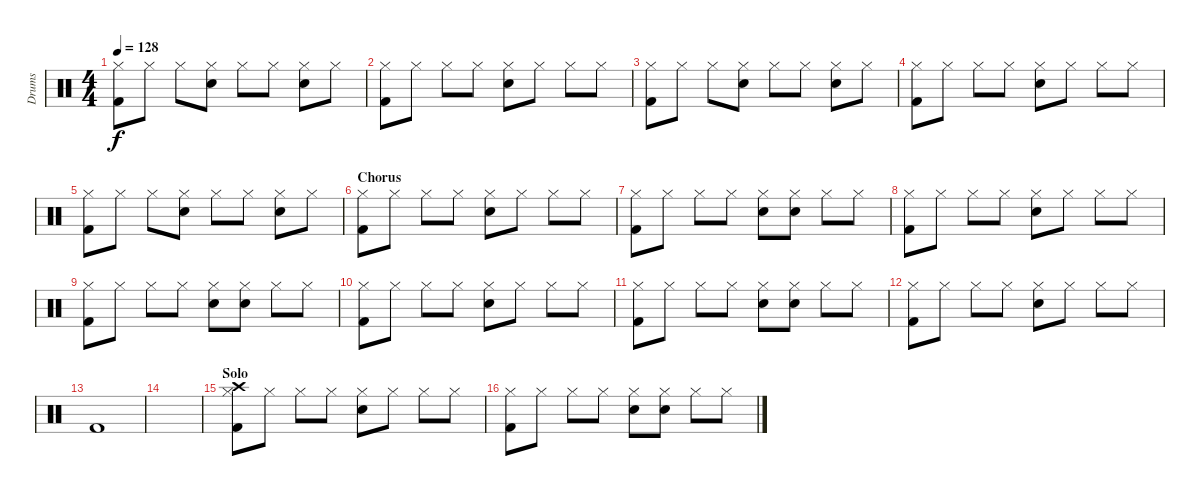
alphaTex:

\track ("Drums" "Drums") {instrument percussion}
\staff {score}
\articulation defaults
\ts (4 4)
\tempo 128
\clef neutral
\ks c
("Hi-Hat (closed)" "Kick (hit) 2").8{dy f} "Hi-Hat (closed)".8 "Hi-Hat (closed)".8 ("Hi-Hat (closed)" "Snare (hit) 2").8 "Hi-Hat (closed)".8 "Hi-Hat (closed)".8 ("Hi-Hat (closed)" "Snare (hit) 2").8 "Hi-Hat (closed)".8 |
("Hi-Hat (closed)" "Kick (hit) 2").8 "Hi-Hat (closed)".8 "Hi-Hat (closed)".8 "Hi-Hat (closed)".8 ("Hi-Hat (closed)" "Snare (hit) 2").8 "Hi-Hat (closed)".8 "Hi-Hat (closed)".8 "Hi-Hat (closed)".8 |
("Hi-Hat (closed)" "Kick (hit) 2").8 "Hi-Hat (closed)".8 "Hi-Hat (closed)".8 ("Hi-Hat (closed)" "Snare (hit) 2").8 "Hi-Hat (closed)".8 "Hi-Hat (closed)".8 ("Hi-Hat (closed)" "Snare (hit) 2").8 "Hi-Hat (closed)".8 |
("Hi-Hat (closed)" "Kick (hit) 2").8 "Hi-Hat (closed)".8 "Hi-Hat (closed)".8 "Hi-Hat (closed)".8 ("Hi-Hat (closed)" "Snare (hit) 2").8 "Hi-Hat (closed)".8 "Hi-Hat (closed)".8 "Hi-Hat (closed)".8 |
("Hi-Hat (closed)" "Kick (hit) 2").8 "Hi-Hat (closed)".8 "Hi-Hat (closed)".8 ("Hi-Hat (closed)" "Snare (hit) 2").8 "Hi-Hat (closed)".8 "Hi-Hat (closed)".8 ("Hi-Hat (closed)" "Snare (hit) 2").8 "Hi-Hat (closed)".8 |
\section ("" "Chorus")
("Hi-Hat (closed)" "Kick (hit) 2").8 "Hi-Hat (closed)".8 "Hi-Hat (closed)".8 "Hi-Hat (closed)".8 ("Hi-Hat (closed)" "Snare (hit) 2").8 "Hi-Hat (closed)".8 "Hi-Hat (closed)".8 "Hi-Hat (closed)".8 |
("Hi-Hat (closed)" "Kick (hit) 2").8 "Hi-Hat (closed)".8 "Hi-Hat (closed)".8 "Hi-Hat (closed)".8 ("Hi-Hat (closed)" "Snare (hit) 2").8 ("Hi-Hat (closed)" "Snare (hit) 2").8 "Hi-Hat (closed)".8 "Hi-Hat (closed)".8 |
("Hi-Hat (closed)" "Kick (hit) 2").8 "Hi-Hat (closed)".8 "Hi-Hat (closed)".8 "Hi-Hat (closed)".8 ("Hi-Hat (closed)" "Snare (hit) 2").8 "Hi-Hat (closed)".8 "Hi-Hat (closed)".8 "Hi-Hat (closed)".8 |
("Hi-Hat (closed)" "Kick (hit) 2").8 "Hi-Hat (closed)".8 "Hi-Hat (closed)".8 "Hi-Hat (closed)".8 ("Hi-Hat (closed)" "Snare (hit) 2").8 ("Hi-Hat (closed)" "Snare (hit) 2").8 "Hi-Hat (closed)".8 "Hi-Hat (closed)".8 |
("Hi-Hat (closed)" "Kick (hit) 2").8 "Hi-Hat (closed)".8 "Hi-Hat (closed)".8 "Hi-Hat (closed)".8 ("Hi-Hat (closed)" "Snare (hit) 2").8 "Hi-Hat (closed)".8 "Hi-Hat (closed)".8 "Hi-Hat (closed)".8 |
("Hi-Hat (closed)" "Kick (hit) 2").8 "Hi-Hat (closed)".8 "Hi-Hat (closed)".8 "Hi-Hat (closed)".8 ("Hi-Hat (closed)" "Snare (hit) 2").8 ("Hi-Hat (closed)" "Snare (hit) 2").8 "Hi-Hat (closed)".8 "Hi-Hat (closed)".8 |
("Hi-Hat (closed)" "Kick (hit) 2").8 "Hi-Hat (closed)".8 "Hi-Hat (closed)".8 "Hi-Hat (closed)".8 ("Hi-Hat (closed)" "Snare (hit) 2").8 "Hi-Hat (closed)".8 "Hi-Hat (closed)".8 "Hi-Hat (closed)".8 |
"Kick (hit) 2".1 |
|
\section ("" "Solo")
("Hi-Hat (closed)" "Crash high (hit)" "Kick (hit) 2").8 "Hi-Hat (closed)".8 "Hi-Hat (closed)".8 "Hi-Hat (closed)".8 ("Hi-Hat (closed)" "Snare (hit) 2").8 "Hi-Hat (closed)".8 "Hi-Hat (closed)".8 "Hi-Hat (closed)".8 |
("Hi-Hat (closed)" "Kick (hit) 2").8 "Hi-Hat (closed)".8 "Hi-Hat (closed)".8 "Hi-Hat (closed)".8 ("Hi-Hat (closed)" "Snare (hit) 2").8 ("Hi-Hat (closed)" "Snare (hit) 2").8 "Hi-Hat (closed)".8 "Hi-Hat (closed)".8
